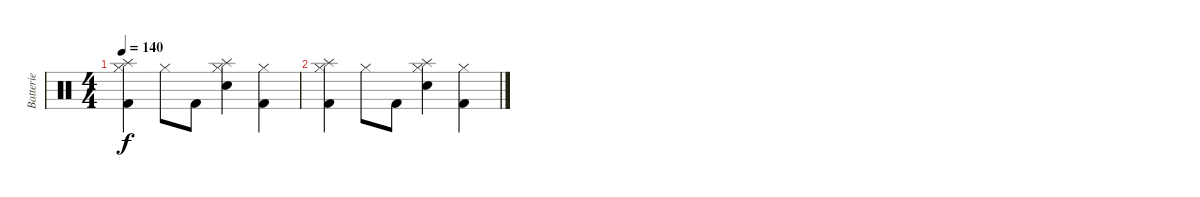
\track ("Batterie" "Batterie") {instrument percussion}
\staff {score}
\articulation defaults
\ts (4 4)
\tempo 140
\clef neutral
\ks c
("Splash (hit)" "Hi-Hat (closed)" "Kick (hit) 2").4{dy f volume 0} "Hi-Hat (closed)".8 "Kick (hit) 2".8 ("Splash (hit)" "Hi-Hat (closed)" "Snare (hit) 2").4 ("Hi-Hat (closed)" "Kick (hit) 2").4 |
("Splash (hit)" "Hi-Hat (closed)" "Kick (hit) 2").4 "Hi-Hat (closed)".8 "Kick (hit) 2".8 ("Splash (hit)" "Hi-Hat (closed)" "Snare (hit) 2").4 ("Hi-Hat (closed)" "Kick (hit) 2").4
